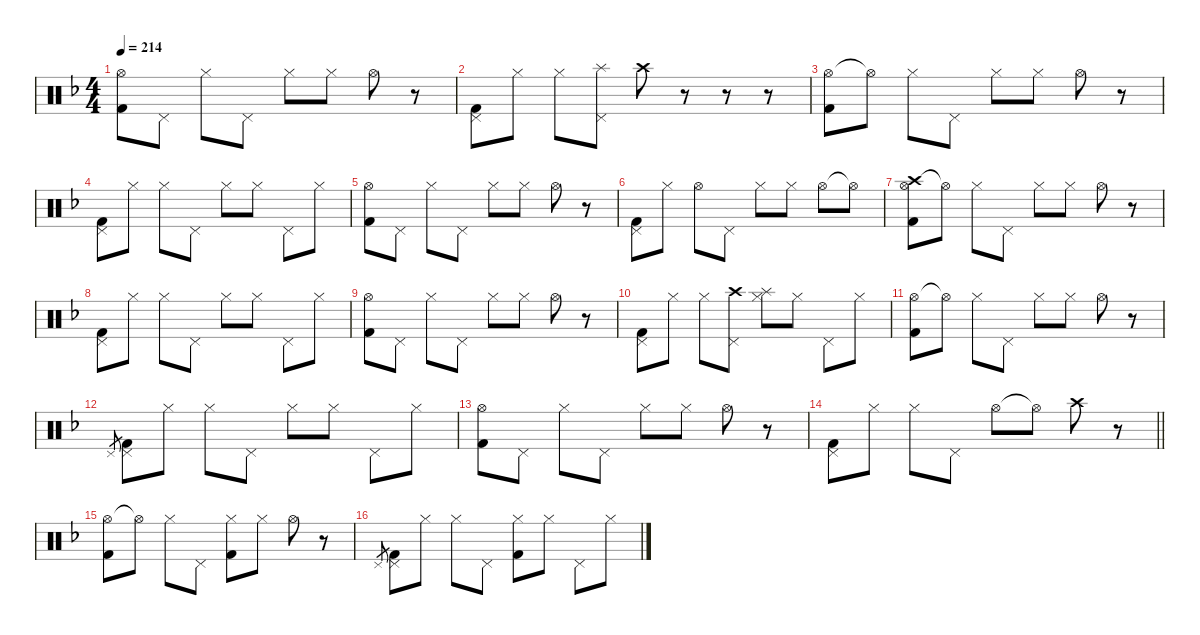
\hideDynamics
\bracketExtendMode nobrackets
\singleTrackTrackNamePolicy hidden
\multiTrackTrackNamePolicy hidden
\firstSystemTrackNameMode fullname
\firstSystemTrackNameOrientation horizontal
\otherSystemsTrackNameOrientation horizontal
\track ("Drumkit" "Drums") {defaultSystemsLayout 4 instrument percussion}
\staff {score}
\articulation defaults
\ts (4 4)
\tempo 214
\clef neutral
\ks dminor
("Hi-Hat (open)"{acc forcenatural} "Kick (hit) 2"{acc forcenatural}).8{dy mp beam Down} "Pedal Hi-Hat (hit)"{acc forcenatural}.8{beam Down} "Hi-Hat (closed)"{acc forcenatural}.8{dy p beam Down} "Pedal Hi-Hat (hit)"{acc forcenatural}.8{beam Down} "Hi-Hat (closed)"{acc forcenatural}.8{dy mp beam Down} "Hi-Hat (closed)"{acc forcenatural}.8{beam Down} "Hi-Hat (open)"{acc forcenatural}.8{beam Down} r.8{beam Down} |
("Pedal Hi-Hat (hit)"{acc forcenatural} "Kick (hit) 2"{acc forcenatural}).8{dy p beam Down} "Hi-Hat (closed)"{acc forcenatural}.8{beam Down} "Hi-Hat (closed)"{acc forcenatural}.8{dy mp beam Down} ("Splash (hit)"{acc forcenatural} "Pedal Hi-Hat (hit)"{acc forcenatural}).8{dy mf beam Down} "Crash high (hit)"{acc forcenatural}.8{dy mp beam Down} r.8{beam Down} r.8{beam Down} r.8{beam Down} |
("Hi-Hat (open)"{acc forcenatural} "Kick (hit) 2"{acc forcenatural}).8{beam Down} "Hi-Hat (open)"{t acc forcenatural}.8{beam Down} "Hi-Hat (closed)"{acc forcenatural}.8{dy p beam Down} "Pedal Hi-Hat (hit)"{acc forcenatural}.8{beam Down} "Hi-Hat (closed)"{acc forcenatural}.8{dy mp beam Down} "Hi-Hat (closed)"{acc forcenatural}.8{beam Down} "Hi-Hat (open)"{acc forcenatural}.8{beam Down} r.8{beam Down} |
("Pedal Hi-Hat (hit)"{acc forcenatural} "Kick (hit) 2"{acc forcenatural}).8{dy p beam Down} "Hi-Hat (closed)"{acc forcenatural}.8{beam Down} "Hi-Hat (closed)"{acc forcenatural}.8{dy mp beam Down} "Pedal Hi-Hat (hit)"{acc forcenatural}.8{dy mf beam Down} "Hi-Hat (closed)"{acc forcenatural}.8{dy mp beam Down} "Hi-Hat (closed)"{acc forcenatural}.8{beam Down} "Pedal Hi-Hat (hit)"{acc forcenatural}.8{dy p beam Down} "Hi-Hat (closed)"{acc forcenatural}.8{beam Down} |
("Hi-Hat (open)"{acc forcenatural} "Kick (hit) 2"{acc forcenatural}).8{dy mp beam Down} "Pedal Hi-Hat (hit)"{acc forcenatural}.8{beam Down} "Hi-Hat (closed)"{acc forcenatural}.8{dy p beam Down} "Pedal Hi-Hat (hit)"{acc forcenatural}.8{beam Down} "Hi-Hat (closed)"{acc forcenatural}.8{dy mp beam Down} "Hi-Hat (closed)"{acc forcenatural}.8{beam Down} "Hi-Hat (open)"{acc forcenatural}.8{beam Down} r.8{beam Down} |
("Pedal Hi-Hat (hit)"{acc forcenatural} "Kick (hit) 2"{acc forcenatural}).8{dy p beam Down} "Hi-Hat (closed)"{acc forcenatural}.8{beam Down} "Hi-Hat (open)"{acc forcenatural}.8{dy mp beam Down} "Pedal Hi-Hat (hit)"{acc forcenatural}.8{dy f beam Down} "Hi-Hat (closed)"{acc forcenatural}.8{dy mp beam Down} "Hi-Hat (closed)"{acc forcenatural}.8{beam Down} "Hi-Hat (open)"{acc forcenatural}.8{dy p beam Down} "Hi-Hat (open)"{t acc forcenatural}.8{beam Down} |
("Crash high (hit)"{acc forcenatural} "Hi-Hat (open)"{acc forcenatural} "Kick (hit) 2"{acc forcenatural}).8{dy mp beam Down} "Hi-Hat (open)"{t acc forcenatural}.8{beam Down} "Hi-Hat (closed)"{acc forcenatural}.8{dy p beam Down} "Pedal Hi-Hat (hit)"{acc forcenatural}.8{beam Down} "Hi-Hat (closed)"{acc forcenatural}.8{dy mp beam Down} "Hi-Hat (closed)"{acc forcenatural}.8{beam Down} "Hi-Hat (open)"{acc forcenatural}.8{beam Down} r.8{beam Down} |
("Pedal Hi-Hat (hit)"{acc forcenatural} "Kick (hit) 2"{acc forcenatural}).8{dy p beam Down} "Hi-Hat (closed)"{acc forcenatural}.8{beam Down} "Hi-Hat (closed)"{acc forcenatural}.8{dy mp beam Down} "Pedal Hi-Hat (hit)"{acc forcenatural}.8{dy mf beam Down} "Hi-Hat (closed)"{acc forcenatural}.8{dy mp beam Down} "Hi-Hat (closed)"{acc forcenatural}.8{beam Down} "Pedal Hi-Hat (hit)"{acc forcenatural}.8{dy p beam Down} "Hi-Hat (closed)"{acc forcenatural}.8{beam Down} |
("Hi-Hat (open)"{acc forcenatural} "Kick (hit) 2"{acc forcenatural}).8{dy mp beam Down} "Pedal Hi-Hat (hit)"{acc forcenatural}.8{beam Down} "Hi-Hat (closed)"{acc forcenatural}.8{dy p beam Down} "Pedal Hi-Hat (hit)"{acc forcenatural}.8{beam Down} "Hi-Hat (closed)"{acc forcenatural}.8{dy mp beam Down} "Hi-Hat (closed)"{acc forcenatural}.8{beam Down} "Hi-Hat (open)"{acc forcenatural}.8{beam Down} r.8{beam Down} |
("Pedal Hi-Hat (hit)"{acc forcenatural} "Kick (hit) 2"{acc forcenatural}).8{dy p beam Down} "Hi-Hat (closed)"{acc forcenatural}.8{beam Down} "Hi-Hat (closed)"{acc forcenatural}.8{dy mp beam Down} ("Crash high (hit)"{acc forcenatural} "Pedal Hi-Hat (hit)"{acc forcenatural}).8{beam Down} ("Splash (hit)"{acc forcenatural} "Hi-Hat (closed)"{acc forcenatural}).8{beam Down} "Hi-Hat (closed)"{acc forcenatural}.8{beam Down} "Pedal Hi-Hat (hit)"{acc forcenatural}.8{dy p beam Down} "Hi-Hat (closed)"{acc forcenatural}.8{beam Down} |
("Hi-Hat (open)"{acc forcenatural} "Kick (hit) 2"{acc forcenatural}).8{dy mp beam Down} "Hi-Hat (open)"{t acc forcenatural}.8{beam Down} "Hi-Hat (closed)"{acc forcenatural}.8{dy p beam Down} "Pedal Hi-Hat (hit)"{acc forcenatural}.8{beam Down} "Hi-Hat (closed)"{acc forcenatural}.8{dy mp beam Down} "Hi-Hat (closed)"{acc forcenatural}.8{beam Down} "Hi-Hat (open)"{acc forcenatural}.8{beam Down} r.8{beam Down} |
"Pedal Hi-Hat (hit)"{acc forcenatural}.8{gr dy p beam Up} ("Pedal Hi-Hat (hit)"{acc forcenatural} "Kick (hit) 2"{acc forcenatural}).8{beam Down} "Hi-Hat (closed)"{acc forcenatural}.8{beam Down} "Hi-Hat (closed)"{acc forcenatural}.8{dy mp beam Down} "Pedal Hi-Hat (hit)"{acc forcenatural}.8{dy mf beam Down} "Hi-Hat (closed)"{acc forcenatural}.8{dy mp beam Down} "Hi-Hat (closed)"{acc forcenatural}.8{beam Down} "Pedal Hi-Hat (hit)"{acc forcenatural}.8{dy p beam Down} "Hi-Hat (closed)"{acc forcenatural}.8{beam Down} |
("Hi-Hat (open)"{acc forcenatural} "Kick (hit) 2"{acc forcenatural}).8{dy mp beam Down} "Pedal Hi-Hat (hit)"{acc forcenatural}.8{beam Down} "Hi-Hat (closed)"{acc forcenatural}.8{dy p beam Down} "Pedal Hi-Hat (hit)"{acc forcenatural}.8{beam Down} "Hi-Hat (closed)"{acc forcenatural}.8{dy mp beam Down} "Hi-Hat (closed)"{acc forcenatural}.8{beam Down} "Hi-Hat (open)"{acc forcenatural}.8{beam Down} r.8{beam Down} |
\barLineRight lightlight
("Pedal Hi-Hat (hit)"{acc forcenatural} "Kick (hit) 2"{acc forcenatural}).8{dy p beam Down} "Hi-Hat (closed)"{acc forcenatural}.8{beam Down} "Hi-Hat (closed)"{acc forcenatural}.8{dy mp beam Down} "Pedal Hi-Hat (hit)"{acc forcenatural}.8{dy mf beam Down} "Hi-Hat (open)"{acc forcenatural}.8{dy mp beam Down} "Hi-Hat (open)"{t acc forcenatural}.8{beam Down} "Crash high (hit)"{acc forcenatural}.8{dy p beam Down} r.8{beam Down} |
("Hi-Hat (open)"{acc forcenatural} "Kick (hit) 2"{acc forcenatural}).8{beam Down} "Hi-Hat (open)"{t acc forcenatural}.8{beam Down} "Hi-Hat (closed)"{acc forcenatural}.8{dy mp beam Down} "Pedal Hi-Hat (hit)"{acc forcenatural}.8{beam Down} ("Hi-Hat (closed)"{acc forcenatural} "Kick (hit) 2"{acc forcenatural}).8{beam Down} "Hi-Hat (closed)"{acc forcenatural}.8{beam Down} "Hi-Hat (open)"{acc forcenatural}.8{beam Down} r.8{beam Down} |
"Pedal Hi-Hat (hit)"{acc forcenatural}.8{gr dy p beam Up} ("Pedal Hi-Hat (hit)"{acc forcenatural} "Kick (hit) 2"{acc forcenatural}).8{beam Down} "Hi-Hat (closed)"{acc forcenatural}.8{beam Down} "Hi-Hat (closed)"{acc forcenatural}.8{dy mp beam Down} "Pedal Hi-Hat (hit)"{acc forcenatural}.8{dy mf beam Down} ("Hi-Hat (closed)"{acc forcenatural} "Kick (hit) 2"{acc forcenatural}).8{dy mp beam Down} "Hi-Hat (closed)"{acc forcenatural}.8{beam Down} "Pedal Hi-Hat (hit)"{acc forcenatural}.8{beam Down} "Hi-Hat (closed)"{acc forcenatural}.8{dy p beam Down}
